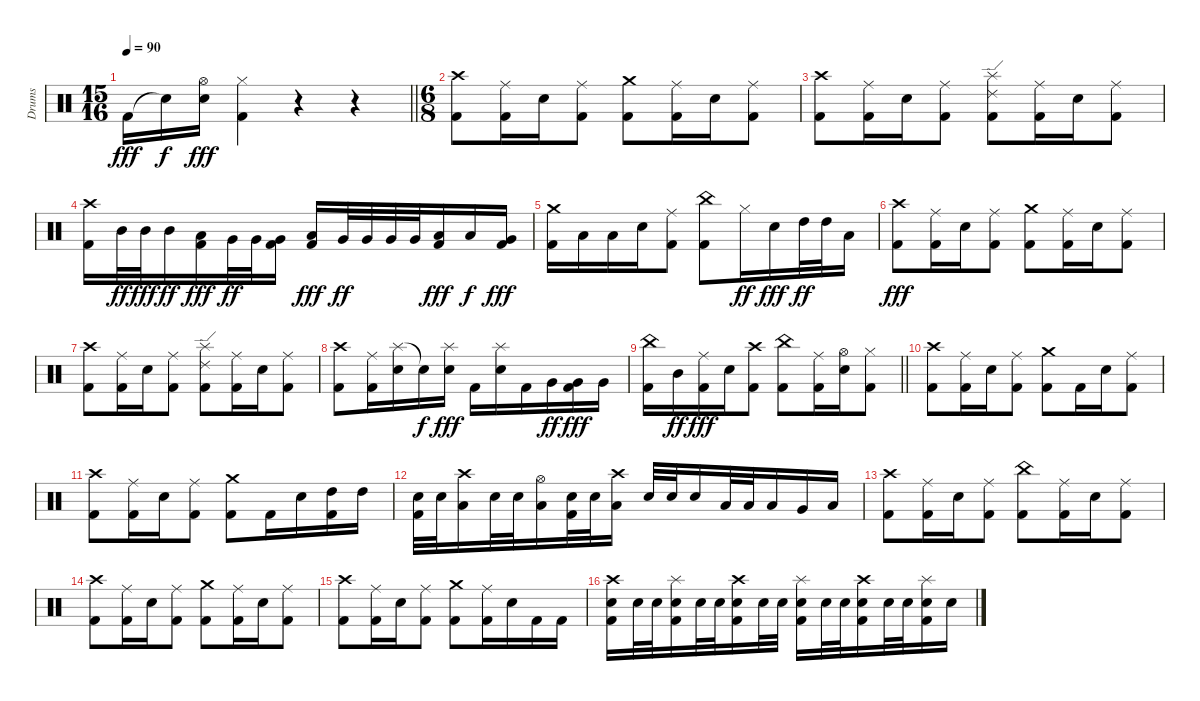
\track ("Drums" "Drums") {instrument percussion}
\staff {score}
\articulation defaults
\ts (15 16)
\tempo 90
\clef neutral
\barLineRight lightlight
\ks c "Kick (hit) 2".16{dy fff} "Snare (hit)"{t}.16{dy f}
("Hi-Hat (open)" "Snare (hit) 2").16{dy fff} ("Hi-Hat (closed)" "Kick (hit) 2").4 r.4 r.4 |
\ts (6 8)
\section ("" "")
("Crash high (hit)" "Kick (hit) 2").8 ("Ride (middle)" "Kick (hit) 2").16 "Snare (hit) 2".16 ("Ride (middle)" "Kick (hit) 2").8 ("Crash medium (hit)" "Kick (hit) 2").8 ("Ride (middle)" "Kick (hit) 2").16 "Snare (hit) 2".16 ("Ride (middle)" "Kick (hit) 2").8 |
("Crash high (hit)" "Kick (hit) 2").8 ("Ride (middle)" "Kick (hit) 2").16 "Snare (hit) 2".16 ("Ride (middle)" "Kick (hit) 2").8 ("Ride (edge) 2" "Splash (hit)" "Kick (hit) 2").8 ("Ride (middle)" "Kick (hit) 2").16 "Snare (hit) 2".16 ("Ride (middle)" "Kick (hit) 2").8 |
("Crash high (hit)" "Kick (hit) 2").16 "Mid Tom (hit)".32{dy ff} "Mid Tom (hit)".32{dy fff} "Mid Tom (hit)".16{dy ff} ("Low Tom (hit)" "Kick (hit) 2").16{dy fff} "Very Low Tom (hit)".32{dy ff} "Very Low Tom (hit)".32 ("Very Low Tom (hit)" "Kick (hit) 2").16 ("Low Tom (hit)" "Kick (hit) 2").16{dy fff} "Very Low Tom (hit)".32{dy ff} "Very Low Tom (hit)".32 "Very Low Tom (hit)".32 "Very Low Tom (hit)".32 ("Low Tom (hit)" "Kick (hit) 2").16{dy fff} "Low Floor Tom (hit)".16{dy f} ("Very Low Tom (hit)" "Kick (hit) 2").16{dy fff} |
("Crash medium (hit)" "Kick (hit) 2").16 "Low Floor Tom (hit)".16 "Low Floor Tom (hit)".16 "Snare (hit) 2".16 ("Ride (middle)" "Kick (hit) 2").8 ("China (hit)" "Kick (hit) 2").8 "Hi-Hat (closed)".16{dy ff} "Snare (hit) 2".16{dy fff} "High Tom (hit)".32{dy ff} "High Tom (hit)".32 "Low Tom (hit)".16 |
("Crash high (hit)" "Kick (hit) 2").8{dy fff} ("Ride (middle)" "Kick (hit) 2").16 "Snare (hit) 2".16 ("Ride (middle)" "Kick (hit) 2").8 ("Crash medium (hit)" "Kick (hit) 2").8 ("Ride (middle)" "Kick (hit) 2").16 "Snare (hit) 2".16 ("Ride (middle)" "Kick (hit) 2").8 |
("Crash high (hit)" "Kick (hit) 2").8 ("Ride (middle)" "Kick (hit) 2").16 "Snare (hit) 2".16 ("Ride (middle)" "Kick (hit) 2").8 ("Ride (edge) 2" "Splash (hit)" "Kick (hit) 2").8 ("Ride (middle)" "Kick (hit) 2").16 "Snare (hit) 2".16 ("Ride (middle)" "Kick (hit) 2").8 |
("Crash high (hit)" "Kick (hit) 2").8 ("Ride (middle)" "Kick (hit) 2").16 ("Splash (hit)" "Snare (hit) 2").16 "Snare (hit)"{t}.16{dy f} ("Splash (hit)" "Snare (hit) 2").16{dy fff} "Kick (hit) 2".16 ("Splash (hit)" "Snare (hit) 2").16 "Kick (hit) 2".16 "Very Low Tom (hit)".16{dy ff} ("Very Low Tom (hit)" "Kick (hit) 2").16{dy fff} "Very Low Tom (hit)".16 |
\barLineRight lightlight
("China (hit)" "Kick (hit) 2").16 "Mid Tom (hit)".16{dy ff} ("Ride (middle)" "Kick (hit) 2").16{dy fff} "Snare (hit) 2".16 ("Crash high (hit)" "Kick (hit) 2").8 ("China (hit)" "Kick (hit) 2").8 ("Ride (middle)" "Kick (hit) 2").16 ("Hi-Hat (open)" "Snare (hit) 2").16 ("Hi-Hat (closed)" "Kick (hit) 2").8 |
\section ("" "")
("Crash high (hit)" "Kick (hit) 2").8 ("Ride (middle)" "Kick (hit) 2").16 "Snare (hit) 2".16 ("Ride (middle)" "Kick (hit) 2").8 ("Crash medium (hit)" "Kick (hit) 2").8 "Kick (hit) 2".16 "Snare (hit) 2".16 ("Ride (middle)" "Kick (hit) 2").8 |
("Crash high (hit)" "Kick (hit) 2").8 ("Ride (middle)" "Kick (hit) 2").16 "Snare (hit) 2".16 ("Ride (middle)" "Kick (hit) 2").8 ("Crash medium (hit)" "Kick (hit) 2").8 "Kick (hit) 2".16 "Snare (hit) 2".16 ("High Tom (hit)" "Kick (hit) 2").16 "High Tom (hit)".16 |
("Snare (hit) 2" "Kick (hit) 2").32 "Snare (hit) 2".32 ("Crash high (hit)" "Low Tom (hit)").16 "Snare (hit) 2".32 "Snare (hit) 2".32 ("Hi-Hat (open)" "Low Tom (hit)").16 ("Snare (hit) 2" "Kick (hit) 2").32 "Snare (hit) 2".32 ("Crash high (hit)" "Low Tom (hit)").16 "Snare (hit) 2".32 "Snare (hit) 2".32 "Snare (hit) 2".16 "Low Tom (hit)".32 "Low Tom (hit)".32 "Low Tom (hit)".16 "Very Low Tom (hit)".16 "Low Floor Tom (hit)".16 |
("Crash high (hit)" "Kick (hit) 2").8 ("Ride (middle)" "Kick (hit) 2").16 "Snare (hit) 2".16 ("Ride (middle)" "Kick (hit) 2").8 ("China (hit)" "Kick (hit) 2").8 ("Ride (middle)" "Kick (hit) 2").16 "Snare (hit) 2".16 ("Ride (middle)" "Kick (hit) 2").8 |
("Crash high (hit)" "Kick (hit) 2").8 ("Ride (middle)" "Kick (hit) 2").16 "Snare (hit) 2".16 ("Ride (middle)" "Kick (hit) 2").8 ("Crash medium (hit)" "Kick (hit) 2").8 ("Ride (middle)" "Kick (hit) 2").16 "Snare (hit) 2".16 ("Ride (middle)" "Kick (hit) 2").8 |
("Crash high (hit)" "Kick (hit) 2").8 ("Ride (middle)" "Kick (hit) 2").16 "Snare (hit) 2".16 ("Ride (middle)" "Kick (hit) 2").8 ("Crash medium (hit)" "Kick (hit) 2").8 ("Ride (middle)" "Kick (hit) 2").16 "Snare (hit) 2".16 "Kick (hit) 2".16 "Kick (hit) 2".16 |
("Crash high (hit)" "Snare (hit) 2" "Kick (hit) 2").16 "Snare (hit) 2".32 "Snare (hit) 2".32 ("Splash (hit)" "Snare (hit) 2" "Kick (hit) 2").16 "Snare (hit) 2".32 "Snare (hit) 2".32 ("Crash high (hit)" "Snare (hit) 2" "Kick (hit) 2").16 "Snare (hit) 2".32 "Snare (hit) 2".32 ("Splash (hit)" "Snare (hit) 2" "Kick (hit) 2").16 "Snare (hit) 2".32 "Snare (hit) 2".32 ("Crash high (hit)" "Snare (hit) 2" "Kick (hit) 2").16 "Snare (hit) 2".32 "Snare (hit) 2".32 ("Splash (hit)" "Snare (hit) 2" "Kick (hit) 2").16 "Snare (hit) 2".16
